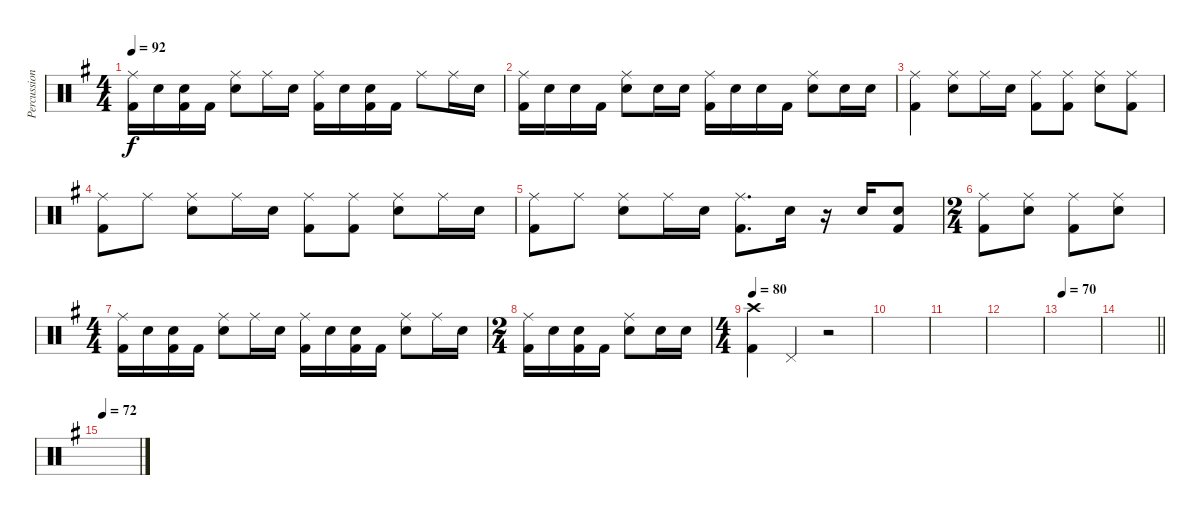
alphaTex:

\track ("Percussion" "Percussion") {instrument percussion}
\staff {score}
\articulation defaults
\ts (4 4)
\tempo 92
\clef neutral
\ks g
("Ride (middle)" "Kick (hit) 2").16{dy f} "Snare (hit) 2".16 ("Snare (hit) 2" "Kick (hit) 2").16 "Kick (hit) 2".16 ("Ride (middle)" "Snare (hit) 2").8 "Ride (middle)".16 "Snare (hit) 2".16 ("Ride (middle)" "Kick (hit) 2").16 "Snare (hit) 2".16 ("Snare (hit) 2" "Kick (hit) 2").16 "Kick (hit) 2".16 "Ride (middle)".8 "Ride (middle)".16 "Snare (hit) 2".16 |
("Ride (middle)" "Kick (hit) 2").16 "Snare (hit) 2".16 "Snare (hit) 2".16 "Kick (hit) 2".16 ("Ride (middle)" "Snare (hit) 2").8 "Snare (hit) 2".16 "Snare (hit) 2".16 ("Ride (middle)" "Kick (hit) 2").16 "Snare (hit) 2".16 "Snare (hit) 2".16 "Kick (hit) 2".16 ("Ride (middle)" "Snare (hit) 2").8 "Snare (hit) 2".16 "Snare (hit) 2".16 |
("Ride (middle)" "Kick (hit) 2").4 ("Ride (middle)" "Snare (hit) 2").8 "Ride (middle)".16 "Snare (hit) 2".16 ("Ride (middle)" "Kick (hit) 2").8 ("Ride (middle)" "Kick (hit) 2").8 ("Ride (middle)" "Snare (hit) 2").8 ("Ride (middle)" "Kick (hit) 2").8 |
("Ride (middle)" "Kick (hit) 2").8 "Ride (middle)".8 ("Ride (middle)" "Snare (hit) 2").8 "Ride (middle)".16 "Snare (hit) 2".16 ("Ride (middle)" "Kick (hit) 2").8 ("Ride (middle)" "Kick (hit) 2").8 ("Ride (middle)" "Snare (hit) 2").8 "Ride (middle)".16 "Snare (hit) 2".16 |
("Ride (middle)" "Kick (hit) 2").8 "Ride (middle)".8 ("Ride (middle)" "Snare (hit) 2").8 "Ride (middle)".16 "Snare (hit) 2".16 ("Ride (middle)" "Kick (hit) 2").8{d} "Snare (hit) 2".16 r.16 "Snare (hit) 2".16 ("Snare (hit) 2" "Kick (hit) 2").8 |
\ts (2 4)
("Ride (middle)" "Kick (hit) 2").8 ("Ride (middle)" "Snare (hit) 2").8 ("Ride (middle)" "Kick (hit) 2").8 ("Ride (middle)" "Snare (hit) 2").8 |
\ts (4 4)
("Ride (middle)" "Kick (hit) 2").16 "Snare (hit) 2".16 ("Snare (hit) 2" "Kick (hit) 2").16 "Kick (hit) 2".16 ("Ride (middle)" "Snare (hit) 2").8 "Ride (middle)".16 "Snare (hit) 2".16 ("Ride (middle)" "Kick (hit) 2").16 "Snare (hit) 2".16 ("Snare (hit) 2" "Kick (hit) 2").16 "Kick (hit) 2".16 ("Ride (middle)" "Snare (hit) 2").8 "Ride (middle)".16 "Snare (hit) 2".16 |
\ts (2 4)
("Ride (middle)" "Kick (hit) 2").16 "Snare (hit) 2".16 ("Snare (hit) 2" "Kick (hit) 2").16 "Kick (hit) 2".16 ("Ride (middle)" "Snare (hit) 2").8 "Snare (hit) 2".16 "Snare (hit) 2".16 |
\ts (4 4)
\tempo 80
("Crash high (hit)" "Kick (hit) 2").4 "Pedal Hi-Hat (hit)".4 r.2 |
|
|
|
\tempo 70
|
\barLineRight lightlight
|
\tempo 72
